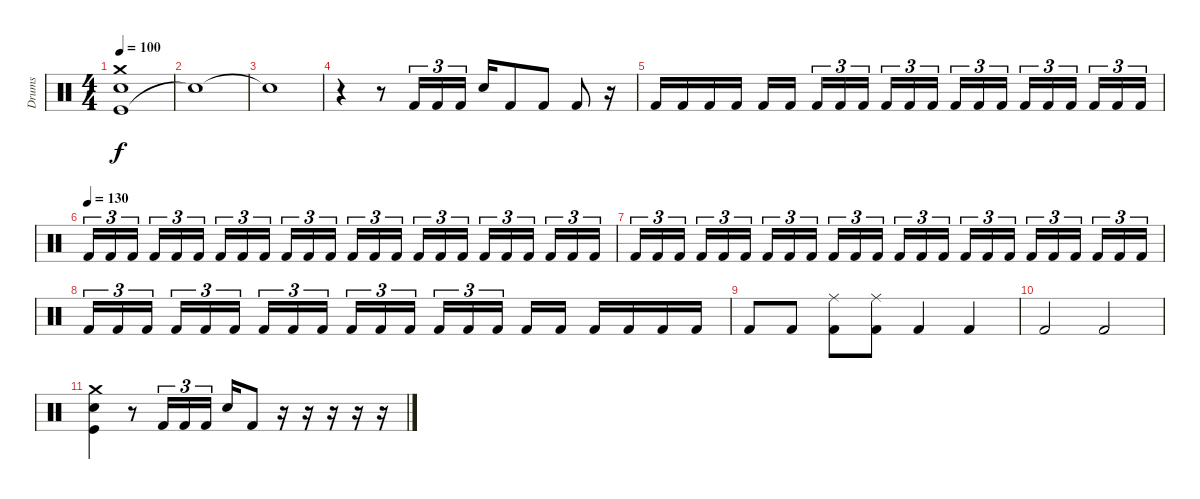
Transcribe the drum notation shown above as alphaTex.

\track ("Drums" "Drums") {instrument percussion}
\staff {score}
\articulation defaults
\ts (4 4)
\tempo 100
\clef neutral
\ks c
("Kick (hit)" "Snare (hit) 2" "Crash medium (hit)").1{dy f} |
"Snare (hit)"{t}.1 |
"Snare (hit)"{t}.1 |
r.4 r.8 "Kick (hit) 2".16{tu (3 2)} "Kick (hit) 2".16{tu (3 2)} "Kick (hit) 2".16{tu (3 2)} "Snare (hit) 2".16 "Kick (hit) 2".8 "Kick (hit) 2".8 "Kick (hit) 2".8 r.16 |
"Kick (hit) 2".16 "Kick (hit) 2".16 "Kick (hit) 2".16 "Kick (hit) 2".16 "Kick (hit) 2".16 "Kick (hit) 2".16 "Kick (hit) 2".16{tu (3 2)} "Kick (hit) 2".16{tu (3 2)} "Kick (hit) 2".16{tu (3 2)} "Kick (hit) 2".16{tu (3 2)} "Kick (hit) 2".16{tu (3 2)} "Kick (hit) 2".16{tu (3 2)} "Kick (hit) 2".16{tu (3 2)} "Kick (hit) 2".16{tu (3 2)} "Kick (hit) 2".16{tu (3 2)} "Kick (hit) 2".16{tu (3 2)} "Kick (hit) 2".16{tu (3 2)} "Kick (hit) 2".16{tu (3 2)} "Kick (hit) 2".16{tu (3 2)} "Kick (hit) 2".16{tu (3 2)} "Kick (hit) 2".16{tu (3 2)} |
\tempo (130)
"Kick (hit) 2".16{tu (3 2)} "Kick (hit) 2".16{tu (3 2)} "Kick (hit) 2".16{tu (3 2)} "Kick (hit) 2".16{tu (3 2)} "Kick (hit) 2".16{tu (3 2)} "Kick (hit) 2".16{tu (3 2)} "Kick (hit) 2".16{tu (3 2)} "Kick (hit) 2".16{tu (3 2)} "Kick (hit) 2".16{tu (3 2)} "Kick (hit) 2".16{tu (3 2)} "Kick (hit) 2".16{tu (3 2)} "Kick (hit) 2".16{tu (3 2)} "Kick (hit) 2".16{tu (3 2)} "Kick (hit) 2".16{tu (3 2)} "Kick (hit) 2".16{tu (3 2)} "Kick (hit) 2".16{tu (3 2)} "Kick (hit) 2".16{tu (3 2)} "Kick (hit) 2".16{tu (3 2)} "Kick (hit) 2".16{tu (3 2)} "Kick (hit) 2".16{tu (3 2)} "Kick (hit) 2".16{tu (3 2)} "Kick (hit) 2".16{tu (3 2)} "Kick (hit) 2".16{tu (3 2)} "Kick (hit) 2".16{tu (3 2)} |
"Kick (hit) 2".16{tu (3 2)} "Kick (hit) 2".16{tu (3 2)} "Kick (hit) 2".16{tu (3 2)} "Kick (hit) 2".16{tu (3 2)} "Kick (hit) 2".16{tu (3 2)} "Kick (hit) 2".16{tu (3 2)} "Kick (hit) 2".16{tu (3 2)} "Kick (hit) 2".16{tu (3 2)} "Kick (hit) 2".16{tu (3 2)} "Kick (hit) 2".16{tu (3 2)} "Kick (hit) 2".16{tu (3 2)} "Kick (hit) 2".16{tu (3 2)} "Kick (hit) 2".16{tu (3 2)} "Kick (hit) 2".16{tu (3 2)} "Kick (hit) 2".16{tu (3 2)} "Kick (hit) 2".16{tu (3 2)} "Kick (hit) 2".16{tu (3 2)} "Kick (hit) 2".16{tu (3 2)} "Kick (hit) 2".16{tu (3 2)} "Kick (hit) 2".16{tu (3 2)} "Kick (hit) 2".16{tu (3 2)} "Kick (hit) 2".16{tu (3 2)} "Kick (hit) 2".16{tu (3 2)} "Kick (hit) 2".16{tu (3 2)} |
"Kick (hit) 2".16{tu (3 2)} "Kick (hit) 2".16{tu (3 2)} "Kick (hit) 2".16{tu (3 2)} "Kick (hit) 2".16{tu (3 2)} "Kick (hit) 2".16{tu (3 2)} "Kick (hit) 2".16{tu (3 2)} "Kick (hit) 2".16{tu (3 2)} "Kick (hit) 2".16{tu (3 2)} "Kick (hit) 2".16{tu (3 2)} "Kick (hit) 2".16{tu (3 2)} "Kick (hit) 2".16{tu (3 2)} "Kick (hit) 2".16{tu (3 2)} "Kick (hit) 2".16{tu (3 2)} "Kick (hit) 2".16{tu (3 2)} "Kick (hit) 2".16{tu (3 2)} "Kick (hit) 2".16 "Kick (hit) 2".16 "Kick (hit) 2".16 "Kick (hit) 2".16 "Kick (hit) 2".16 "Kick (hit) 2".16 |
"Kick (hit) 2".8 "Kick (hit) 2".8 ("Kick (hit) 2" "Ride (middle)").8 ("Kick (hit) 2" "Ride (middle)").8 "Kick (hit) 2".4 "Kick (hit) 2".4 |
"Kick (hit) 2".2 "Kick (hit) 2".2 |
("Kick (hit)" "Snare (hit) 2" "Crash medium (hit)").4 r.8 "Kick (hit) 2".16{tu (3 2)} "Kick (hit) 2".16{tu (3 2)} "Kick (hit) 2".16{tu (3 2)} "Snare (hit) 2".16 "Kick (hit) 2".8 r.16 r.16 r.16 r.16 r.16
